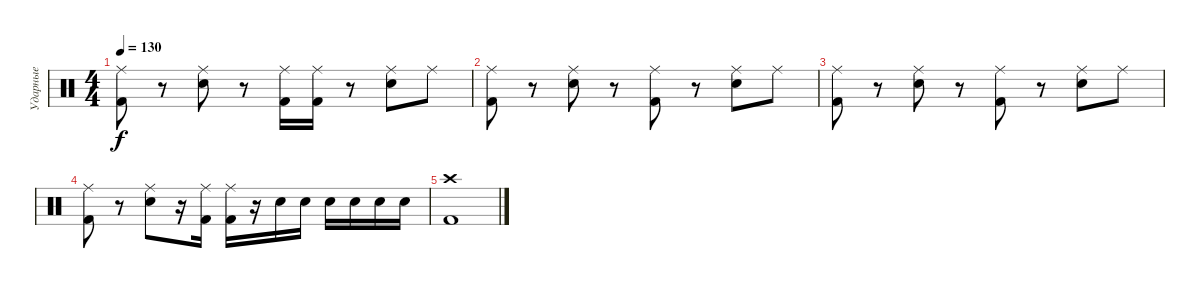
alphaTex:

\track ("Ударные" "Ударные") {instrument percussion}
\staff {score}
\articulation defaults
\ts (4 4)
\tempo 130
\clef neutral
\ks c
("Kick (hit) 2" "Ride (middle)").8{dy f} r.8 ("Electric Snare (hit)" "Ride (middle)").8 r.8 ("Kick (hit) 2" "Ride (middle)").16 ("Kick (hit) 2" "Ride (middle)").16 r.8 ("Electric Snare (hit)" "Ride (middle)").8 "Ride (middle)".8 |
("Kick (hit) 2" "Ride (middle)").8 r.8 ("Electric Snare (hit)" "Ride (middle)").8 r.8 ("Kick (hit) 2" "Ride (middle)").8 r.8 ("Electric Snare (hit)" "Ride (middle)").8 "Ride (middle)".8 |
("Kick (hit) 2" "Ride (middle)").8 r.8 ("Electric Snare (hit)" "Ride (middle)").8 r.8 ("Kick (hit) 2" "Ride (middle)").8 r.8 ("Electric Snare (hit)" "Ride (middle)").8 "Ride (middle)".8 |
("Kick (hit) 2" "Ride (middle)").8 r.8 ("Electric Snare (hit)" "Ride (middle)").8 r.16 ("Kick (hit) 2" "Ride (middle)").16 ("Kick (hit) 2" "Ride (middle)").16 r.16 "Electric Snare (hit)".16 "Electric Snare (hit)".16 "Electric Snare (hit)".16 "Electric Snare (hit)".16 "Electric Snare (hit)".16 "Electric Snare (hit)".16 |
("Kick (hit) 2" "Crash high (hit)").1
